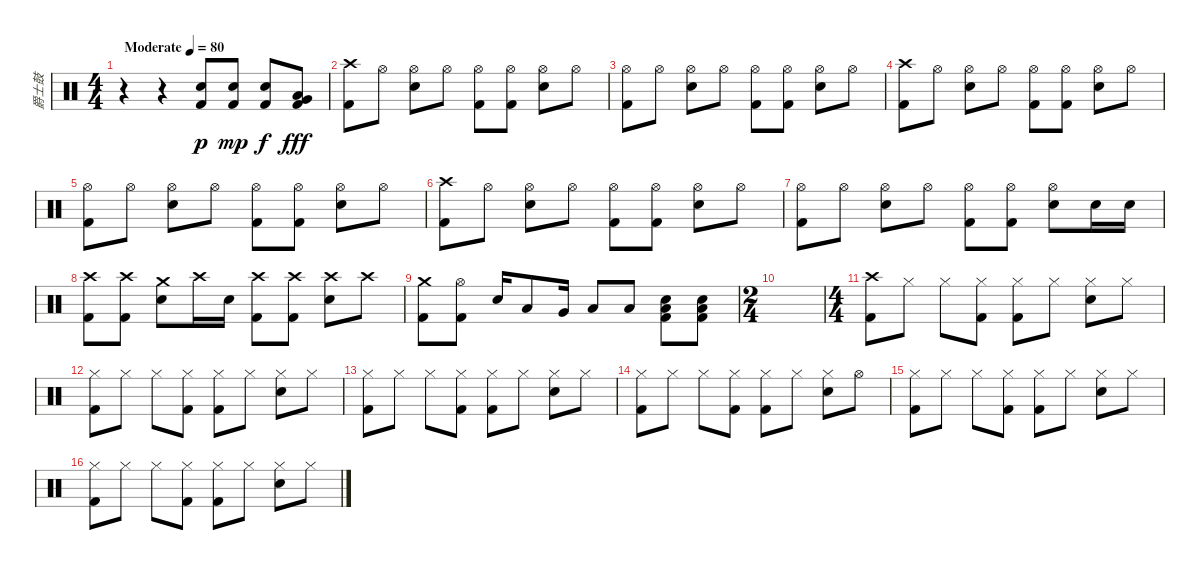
\track ("爵士鼓" "爵士鼓") {instrument percussion}
\staff {score}
\articulation defaults
\ts (4 4)
\tempo (80 "Moderate")
\clef neutral
\ks c
r.4{dy p} r.4 ("Electric Snare (hit)" "Kick (hit) 2").8 ("Electric Snare (hit)" "Kick (hit) 2").8{dy mp} ("Electric Snare (hit)" "Kick (hit) 2").8{dy f} ("Low Tom (hit)" "Very Low Tom (hit)" "Kick (hit) 2").8{dy fff} |
("Crash high (hit)" "Kick (hit) 2").8 "Hi-Hat (open)".8 ("Hi-Hat (open)" "Electric Snare (hit)").8 "Hi-Hat (open)".8 ("Hi-Hat (open)" "Kick (hit) 2").8 ("Hi-Hat (open)" "Kick (hit) 2").8 ("Hi-Hat (open)" "Electric Snare (hit)").8 "Hi-Hat (open)".8 |
("Hi-Hat (open)" "Kick (hit) 2").8 "Hi-Hat (open)".8 ("Hi-Hat (open)" "Electric Snare (hit)").8 "Hi-Hat (open)".8 ("Hi-Hat (open)" "Kick (hit) 2").8 ("Hi-Hat (open)" "Kick (hit) 2").8 ("Hi-Hat (open)" "Electric Snare (hit)").8 "Hi-Hat (open)".8 |
("Crash high (hit)" "Kick (hit) 2").8 "Hi-Hat (open)".8 ("Hi-Hat (open)" "Electric Snare (hit)").8 "Hi-Hat (open)".8 ("Hi-Hat (open)" "Kick (hit) 2").8 ("Hi-Hat (open)" "Kick (hit) 2").8 ("Hi-Hat (open)" "Electric Snare (hit)").8 "Hi-Hat (open)".8 |
("Hi-Hat (open)" "Kick (hit) 2").8 "Hi-Hat (open)".8 ("Hi-Hat (open)" "Electric Snare (hit)").8 "Hi-Hat (open)".8 ("Hi-Hat (open)" "Kick (hit) 2").8 ("Hi-Hat (open)" "Kick (hit) 2").8 ("Hi-Hat (open)" "Electric Snare (hit)").8 "Hi-Hat (open)".8 |
("Crash high (hit)" "Kick (hit) 2").8 "Hi-Hat (open)".8 ("Hi-Hat (open)" "Electric Snare (hit)").8 "Hi-Hat (open)".8 ("Hi-Hat (open)" "Kick (hit) 2").8 ("Hi-Hat (open)" "Kick (hit) 2").8 ("Hi-Hat (open)" "Electric Snare (hit)").8 "Hi-Hat (open)".8 |
("Hi-Hat (open)" "Kick (hit) 2").8 "Hi-Hat (open)".8 ("Hi-Hat (open)" "Electric Snare (hit)").8 "Hi-Hat (open)".8 ("Hi-Hat (open)" "Kick (hit) 2").8 ("Hi-Hat (open)" "Kick (hit) 2").8 ("Hi-Hat (open)" "Electric Snare (hit)").8 "Electric Snare (hit)".16 "Electric Snare (hit)".16 |
("Crash high (hit)" "Kick (hit) 2").8 ("Crash high (hit)" "Kick (hit) 2").8 ("Crash medium (hit)" "Electric Snare (hit)").8 "Crash high (hit)".16 "Electric Snare (hit)".16 ("Crash high (hit)" "Kick (hit) 2").8 ("Crash high (hit)" "Kick (hit) 2").8 ("Crash high (hit)" "Electric Snare (hit)").8 "Crash high (hit)".8 |
("Crash medium (hit)" "Kick (hit) 2").8 ("Hi-Hat (open)" "Kick (hit) 2").8 "Electric Snare (hit)".16 "Low Tom (hit)".8 "Very Low Tom (hit)".16 "Low Floor Tom (hit)".8 "Low Floor Tom (hit)".8 ("Electric Snare (hit)" "Low Floor Tom (hit)" "Kick (hit) 2").8 ("Electric Snare (hit)" "Low Floor Tom (hit)" "Kick (hit) 2").8 |
\ts (2 4)
|
\ts (4 4)
("Crash high (hit)" "Kick (hit) 2").8 "Hi-Hat (closed)".8 "Hi-Hat (closed)".8 ("Hi-Hat (closed)" "Kick (hit) 2").8 ("Hi-Hat (closed)" "Kick (hit) 2").8 "Hi-Hat (closed)".8 ("Hi-Hat (closed)" "Electric Snare (hit)").8 "Hi-Hat (closed)".8 |
("Hi-Hat (closed)" "Kick (hit) 2").8 "Hi-Hat (closed)".8 "Hi-Hat (closed)".8 ("Hi-Hat (closed)" "Kick (hit) 2").8 ("Hi-Hat (closed)" "Kick (hit) 2").8 "Hi-Hat (closed)".8 ("Hi-Hat (closed)" "Electric Snare (hit)").8 "Hi-Hat (closed)".8 |
("Hi-Hat (closed)" "Kick (hit) 2").8 "Hi-Hat (closed)".8 "Hi-Hat (closed)".8 ("Hi-Hat (closed)" "Kick (hit) 2").8 ("Hi-Hat (closed)" "Kick (hit) 2").8 "Hi-Hat (closed)".8 ("Hi-Hat (closed)" "Electric Snare (hit)").8 "Hi-Hat (closed)".8 |
("Hi-Hat (closed)" "Kick (hit) 2").8 "Hi-Hat (closed)".8 "Hi-Hat (closed)".8 ("Hi-Hat (closed)" "Kick (hit) 2").8 ("Hi-Hat (closed)" "Kick (hit) 2").8 "Hi-Hat (closed)".8 ("Hi-Hat (closed)" "Electric Snare (hit)").8 "Hi-Hat (open)".8 |
("Hi-Hat (closed)" "Kick (hit) 2").8 "Hi-Hat (closed)".8 "Hi-Hat (closed)".8 ("Hi-Hat (closed)" "Kick (hit) 2").8 ("Hi-Hat (closed)" "Kick (hit) 2").8 "Hi-Hat (closed)".8 ("Hi-Hat (closed)" "Electric Snare (hit)").8 "Hi-Hat (closed)".8 |
("Hi-Hat (closed)" "Kick (hit) 2").8 "Hi-Hat (closed)".8 "Hi-Hat (closed)".8 ("Hi-Hat (closed)" "Kick (hit) 2").8 ("Hi-Hat (closed)" "Kick (hit) 2").8 "Hi-Hat (closed)".8 ("Hi-Hat (closed)" "Electric Snare (hit)").8 "Hi-Hat (closed)".8
